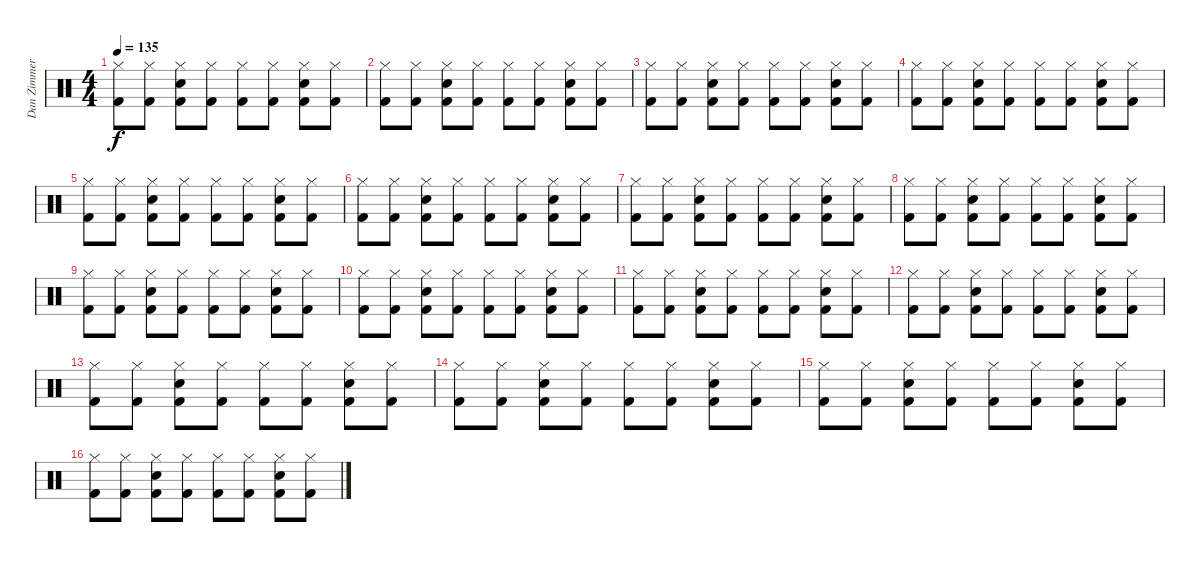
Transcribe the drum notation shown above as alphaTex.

\track ("Dan Zimmerman" "Dan Zimmer") {instrument percussion}
\staff {score}
\articulation defaults
\ts (4 4)
\tempo 135
\clef neutral
\ks c
("Hi-Hat (closed)" "Kick (hit) 2").8{dy f} ("Hi-Hat (closed)" "Kick (hit) 2").8 ("Snare (hit) 2" "Hi-Hat (closed)" "Kick (hit) 2").8 ("Hi-Hat (closed)" "Kick (hit) 2").8 ("Hi-Hat (closed)" "Kick (hit) 2").8 ("Hi-Hat (closed)" "Kick (hit) 2").8 ("Snare (hit) 2" "Hi-Hat (closed)" "Kick (hit) 2").8 ("Hi-Hat (closed)" "Kick (hit) 2").8 |
("Hi-Hat (closed)" "Kick (hit) 2").8 ("Hi-Hat (closed)" "Kick (hit) 2").8 ("Snare (hit) 2" "Hi-Hat (closed)" "Kick (hit) 2").8 ("Hi-Hat (closed)" "Kick (hit) 2").8 ("Hi-Hat (closed)" "Kick (hit) 2").8 ("Hi-Hat (closed)" "Kick (hit) 2").8 ("Snare (hit) 2" "Hi-Hat (closed)" "Kick (hit) 2").8 ("Hi-Hat (closed)" "Kick (hit) 2").8 |
("Hi-Hat (closed)" "Kick (hit) 2").8 ("Hi-Hat (closed)" "Kick (hit) 2").8 ("Snare (hit) 2" "Hi-Hat (closed)" "Kick (hit) 2").8 ("Hi-Hat (closed)" "Kick (hit) 2").8 ("Hi-Hat (closed)" "Kick (hit) 2").8 ("Hi-Hat (closed)" "Kick (hit) 2").8 ("Snare (hit) 2" "Hi-Hat (closed)" "Kick (hit) 2").8 ("Hi-Hat (closed)" "Kick (hit) 2").8 |
("Hi-Hat (closed)" "Kick (hit) 2").8 ("Hi-Hat (closed)" "Kick (hit) 2").8 ("Snare (hit) 2" "Hi-Hat (closed)" "Kick (hit) 2").8 ("Hi-Hat (closed)" "Kick (hit) 2").8 ("Hi-Hat (closed)" "Kick (hit) 2").8 ("Hi-Hat (closed)" "Kick (hit) 2").8 ("Snare (hit) 2" "Hi-Hat (closed)" "Kick (hit) 2").8 ("Hi-Hat (closed)" "Kick (hit) 2").8 |
("Hi-Hat (closed)" "Kick (hit) 2").8 ("Hi-Hat (closed)" "Kick (hit) 2").8 ("Snare (hit) 2" "Hi-Hat (closed)" "Kick (hit) 2").8 ("Hi-Hat (closed)" "Kick (hit) 2").8 ("Hi-Hat (closed)" "Kick (hit) 2").8 ("Hi-Hat (closed)" "Kick (hit) 2").8 ("Snare (hit) 2" "Hi-Hat (closed)" "Kick (hit) 2").8 ("Hi-Hat (closed)" "Kick (hit) 2").8 |
("Hi-Hat (closed)" "Kick (hit) 2").8 ("Hi-Hat (closed)" "Kick (hit) 2").8 ("Snare (hit) 2" "Hi-Hat (closed)" "Kick (hit) 2").8 ("Hi-Hat (closed)" "Kick (hit) 2").8 ("Hi-Hat (closed)" "Kick (hit) 2").8 ("Hi-Hat (closed)" "Kick (hit) 2").8 ("Snare (hit) 2" "Hi-Hat (closed)" "Kick (hit) 2").8 ("Hi-Hat (closed)" "Kick (hit) 2").8 |
("Hi-Hat (closed)" "Kick (hit) 2").8 ("Hi-Hat (closed)" "Kick (hit) 2").8 ("Snare (hit) 2" "Hi-Hat (closed)" "Kick (hit) 2").8 ("Hi-Hat (closed)" "Kick (hit) 2").8 ("Hi-Hat (closed)" "Kick (hit) 2").8 ("Hi-Hat (closed)" "Kick (hit) 2").8 ("Snare (hit) 2" "Hi-Hat (closed)" "Kick (hit) 2").8 ("Hi-Hat (closed)" "Kick (hit) 2").8 |
("Hi-Hat (closed)" "Kick (hit) 2").8 ("Hi-Hat (closed)" "Kick (hit) 2").8 ("Snare (hit) 2" "Hi-Hat (closed)" "Kick (hit) 2").8 ("Hi-Hat (closed)" "Kick (hit) 2").8 ("Hi-Hat (closed)" "Kick (hit) 2").8 ("Hi-Hat (closed)" "Kick (hit) 2").8 ("Snare (hit) 2" "Hi-Hat (closed)" "Kick (hit) 2").8 ("Hi-Hat (closed)" "Kick (hit) 2").8 |
("Hi-Hat (closed)" "Kick (hit) 2").8 ("Hi-Hat (closed)" "Kick (hit) 2").8 ("Snare (hit) 2" "Hi-Hat (closed)" "Kick (hit) 2").8 ("Hi-Hat (closed)" "Kick (hit) 2").8 ("Hi-Hat (closed)" "Kick (hit) 2").8 ("Hi-Hat (closed)" "Kick (hit) 2").8 ("Snare (hit) 2" "Hi-Hat (closed)" "Kick (hit) 2").8 ("Hi-Hat (closed)" "Kick (hit) 2").8 |
("Hi-Hat (closed)" "Kick (hit) 2").8 ("Hi-Hat (closed)" "Kick (hit) 2").8 ("Snare (hit) 2" "Hi-Hat (closed)" "Kick (hit) 2").8 ("Hi-Hat (closed)" "Kick (hit) 2").8 ("Hi-Hat (closed)" "Kick (hit) 2").8 ("Hi-Hat (closed)" "Kick (hit) 2").8 ("Snare (hit) 2" "Hi-Hat (closed)" "Kick (hit) 2").8 ("Hi-Hat (closed)" "Kick (hit) 2").8 |
("Hi-Hat (closed)" "Kick (hit) 2").8 ("Hi-Hat (closed)" "Kick (hit) 2").8 ("Snare (hit) 2" "Hi-Hat (closed)" "Kick (hit) 2").8 ("Hi-Hat (closed)" "Kick (hit) 2").8 ("Hi-Hat (closed)" "Kick (hit) 2").8 ("Hi-Hat (closed)" "Kick (hit) 2").8 ("Snare (hit) 2" "Hi-Hat (closed)" "Kick (hit) 2").8 ("Hi-Hat (closed)" "Kick (hit) 2").8 |
("Hi-Hat (closed)" "Kick (hit) 2").8 ("Hi-Hat (closed)" "Kick (hit) 2").8 ("Snare (hit) 2" "Hi-Hat (closed)" "Kick (hit) 2").8 ("Hi-Hat (closed)" "Kick (hit) 2").8 ("Hi-Hat (closed)" "Kick (hit) 2").8 ("Hi-Hat (closed)" "Kick (hit) 2").8 ("Snare (hit) 2" "Hi-Hat (closed)" "Kick (hit) 2").8 ("Hi-Hat (closed)" "Kick (hit) 2").8 |
("Hi-Hat (closed)" "Kick (hit) 2").8 ("Hi-Hat (closed)" "Kick (hit) 2").8 ("Snare (hit) 2" "Hi-Hat (closed)" "Kick (hit) 2").8 ("Hi-Hat (closed)" "Kick (hit) 2").8 ("Hi-Hat (closed)" "Kick (hit) 2").8 ("Hi-Hat (closed)" "Kick (hit) 2").8 ("Snare (hit) 2" "Hi-Hat (closed)" "Kick (hit) 2").8 ("Hi-Hat (closed)" "Kick (hit) 2").8 |
("Hi-Hat (closed)" "Kick (hit) 2").8 ("Hi-Hat (closed)" "Kick (hit) 2").8 ("Snare (hit) 2" "Hi-Hat (closed)" "Kick (hit) 2").8 ("Hi-Hat (closed)" "Kick (hit) 2").8 ("Hi-Hat (closed)" "Kick (hit) 2").8 ("Hi-Hat (closed)" "Kick (hit) 2").8 ("Snare (hit) 2" "Hi-Hat (closed)" "Kick (hit) 2").8 ("Hi-Hat (closed)" "Kick (hit) 2").8 |
("Hi-Hat (closed)" "Kick (hit) 2").8 ("Hi-Hat (closed)" "Kick (hit) 2").8 ("Snare (hit) 2" "Hi-Hat (closed)" "Kick (hit) 2").8 ("Hi-Hat (closed)" "Kick (hit) 2").8 ("Hi-Hat (closed)" "Kick (hit) 2").8 ("Hi-Hat (closed)" "Kick (hit) 2").8 ("Snare (hit) 2" "Hi-Hat (closed)" "Kick (hit) 2").8 ("Hi-Hat (closed)" "Kick (hit) 2").8 |
("Hi-Hat (closed)" "Kick (hit) 2").8 ("Hi-Hat (closed)" "Kick (hit) 2").8 ("Snare (hit) 2" "Hi-Hat (closed)" "Kick (hit) 2").8 ("Hi-Hat (closed)" "Kick (hit) 2").8 ("Hi-Hat (closed)" "Kick (hit) 2").8 ("Hi-Hat (closed)" "Kick (hit) 2").8 ("Snare (hit) 2" "Hi-Hat (closed)" "Kick (hit) 2").8 ("Hi-Hat (closed)" "Kick (hit) 2").8
